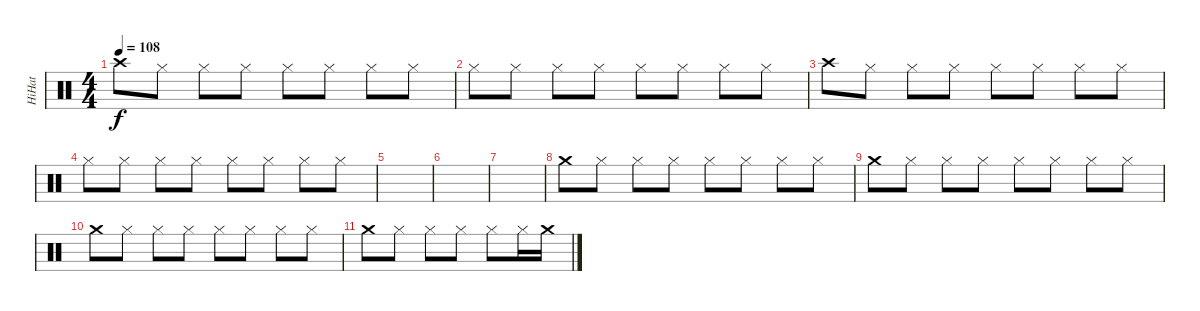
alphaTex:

\track ("HiHat" "HiHat") {instrument percussion}
\staff {score}
\articulation defaults
\ts (4 4)
\tempo 108
\clef neutral
\ks c "Crash high (hit)".8{dy f} "Hi-Hat (closed)".8 "Hi-Hat (closed)".8 "Hi-Hat (closed)".8 "Hi-Hat (closed)".8 "Hi-Hat (closed)".8 "Hi-Hat (closed)".8 "Hi-Hat (closed)".8
|
"Hi-Hat (closed)".8 "Hi-Hat (closed)".8 "Hi-Hat (closed)".8 "Hi-Hat (closed)".8 "Hi-Hat (closed)".8 "Hi-Hat (closed)".8 "Hi-Hat (closed)".8 "Hi-Hat (closed)".8 |
"Crash high (hit)".8 "Hi-Hat (closed)".8 "Hi-Hat (closed)".8 "Hi-Hat (closed)".8 "Hi-Hat (closed)".8 "Hi-Hat (closed)".8 "Hi-Hat (closed)".8 "Hi-Hat (closed)".8 |
"Hi-Hat (closed)".8 "Hi-Hat (closed)".8 "Hi-Hat (closed)".8 "Hi-Hat (closed)".8 "Hi-Hat (closed)".8 "Hi-Hat (closed)".8 "Hi-Hat (closed)".8 "Hi-Hat (closed)".8 |
|
|
|
"Crash medium (hit)".8 "Hi-Hat (closed)".8 "Hi-Hat (closed)".8 "Hi-Hat (closed)".8 "Hi-Hat (closed)".8 "Hi-Hat (closed)".8 "Hi-Hat (closed)".8 "Hi-Hat (closed)".8 |
"Crash medium (hit)".8 "Hi-Hat (closed)".8 "Hi-Hat (closed)".8 "Hi-Hat (closed)".8 "Hi-Hat (closed)".8 "Hi-Hat (closed)".8 "Hi-Hat (closed)".8 "Hi-Hat (closed)".8 |
"Crash medium (hit)".8 "Hi-Hat (closed)".8 "Hi-Hat (closed)".8 "Hi-Hat (closed)".8 "Hi-Hat (closed)".8 "Hi-Hat (closed)".8 "Hi-Hat (closed)".8 "Hi-Hat (closed)".8 |
"Crash medium (hit)".8 "Hi-Hat (closed)".8 "Hi-Hat (closed)".8 "Hi-Hat (closed)".8 "Hi-Hat (closed)".8 "Hi-Hat (closed)".16 "Crash medium (hit)".16
